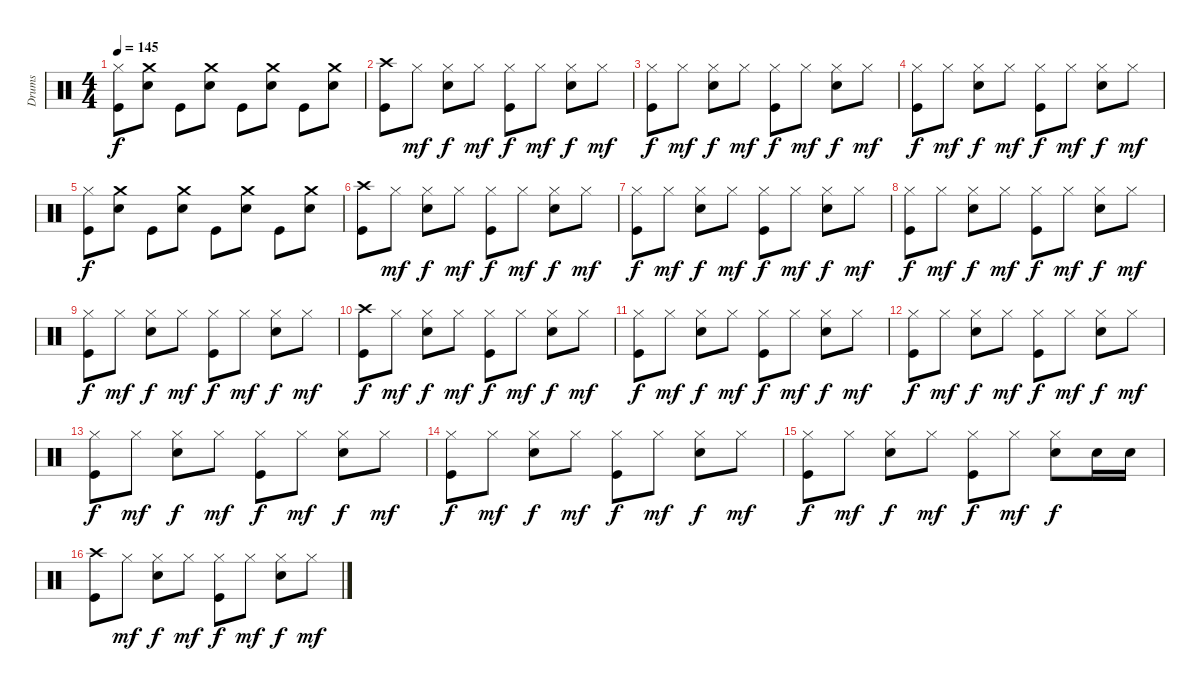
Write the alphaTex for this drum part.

\track ("Drums" "Drums") {instrument percussion}
\staff {score}
\articulation defaults
\ts (4 4)
\tempo 145
\clef neutral
\ks c
("Hi-Hat (closed)" "Kick (hit)").8{dy f} ("Snare (hit) 2" "Crash medium (hit)").8 "Kick (hit)".8 ("Snare (hit) 2" "Crash medium (hit)").8 "Kick (hit)".8 ("Snare (hit) 2" "Crash medium (hit)").8 "Kick (hit)".8 ("Snare (hit) 2" "Crash medium (hit)").8 |
("Crash high (hit)" "Kick (hit)").8 "Hi-Hat (closed)".8{dy mf} ("Hi-Hat (closed)" "Snare (hit) 2").8{dy f} "Hi-Hat (closed)".8{dy mf} ("Hi-Hat (closed)" "Kick (hit)").8{dy f} "Hi-Hat (closed)".8{dy mf} ("Hi-Hat (closed)" "Snare (hit) 2").8{dy f} "Hi-Hat (closed)".8{dy mf} |
("Hi-Hat (closed)" "Kick (hit)").8{dy f} "Hi-Hat (closed)".8{dy mf} ("Hi-Hat (closed)" "Snare (hit) 2").8{dy f} "Hi-Hat (closed)".8{dy mf} ("Hi-Hat (closed)" "Kick (hit)").8{dy f} "Hi-Hat (closed)".8{dy mf} ("Hi-Hat (closed)" "Snare (hit) 2").8{dy f} "Hi-Hat (closed)".8{dy mf} |
("Hi-Hat (closed)" "Kick (hit)").8{dy f} "Hi-Hat (closed)".8{dy mf} ("Hi-Hat (closed)" "Snare (hit) 2").8{dy f} "Hi-Hat (closed)".8{dy mf} ("Hi-Hat (closed)" "Kick (hit)").8{dy f} "Hi-Hat (closed)".8{dy mf} ("Hi-Hat (closed)" "Snare (hit) 2").8{dy f} "Hi-Hat (closed)".8{dy mf} |
("Hi-Hat (closed)" "Kick (hit)").8{dy f} ("Snare (hit) 2" "Crash medium (hit)").8 "Kick (hit)".8 ("Snare (hit) 2" "Crash medium (hit)").8 "Kick (hit)".8 ("Snare (hit) 2" "Crash medium (hit)").8 "Kick (hit)".8 ("Snare (hit) 2" "Crash medium (hit)").8 |
("Crash high (hit)" "Kick (hit)").8 "Hi-Hat (closed)".8{dy mf} ("Hi-Hat (closed)" "Snare (hit) 2").8{dy f} "Hi-Hat (closed)".8{dy mf} ("Hi-Hat (closed)" "Kick (hit)").8{dy f} "Hi-Hat (closed)".8{dy mf} ("Hi-Hat (closed)" "Snare (hit) 2").8{dy f} "Hi-Hat (closed)".8{dy mf} |
("Hi-Hat (closed)" "Kick (hit)").8{dy f} "Hi-Hat (closed)".8{dy mf} ("Hi-Hat (closed)" "Snare (hit) 2").8{dy f} "Hi-Hat (closed)".8{dy mf} ("Hi-Hat (closed)" "Kick (hit)").8{dy f} "Hi-Hat (closed)".8{dy mf} ("Hi-Hat (closed)" "Snare (hit) 2").8{dy f} "Hi-Hat (closed)".8{dy mf} |
("Hi-Hat (closed)" "Kick (hit)").8{dy f} "Hi-Hat (closed)".8{dy mf} ("Hi-Hat (closed)" "Snare (hit) 2").8{dy f} "Hi-Hat (closed)".8{dy mf} ("Hi-Hat (closed)" "Kick (hit)").8{dy f} "Hi-Hat (closed)".8{dy mf} ("Hi-Hat (closed)" "Snare (hit) 2").8{dy f} "Hi-Hat (closed)".8{dy mf} |
("Hi-Hat (closed)" "Kick (hit)").8{dy f} "Hi-Hat (closed)".8{dy mf} ("Hi-Hat (closed)" "Snare (hit) 2").8{dy f} "Hi-Hat (closed)".8{dy mf} ("Hi-Hat (closed)" "Kick (hit)").8{dy f} "Hi-Hat (closed)".8{dy mf} ("Hi-Hat (closed)" "Snare (hit) 2").8{dy f} "Hi-Hat (closed)".8{dy mf} |
("Crash high (hit)" "Kick (hit)").8{dy f} "Hi-Hat (closed)".8{dy mf} ("Hi-Hat (closed)" "Snare (hit) 2").8{dy f} "Hi-Hat (closed)".8{dy mf} ("Hi-Hat (closed)" "Kick (hit)").8{dy f} "Hi-Hat (closed)".8{dy mf} ("Hi-Hat (closed)" "Snare (hit) 2").8{dy f} "Hi-Hat (closed)".8{dy mf} |
("Hi-Hat (closed)" "Kick (hit)").8{dy f} "Hi-Hat (closed)".8{dy mf} ("Hi-Hat (closed)" "Snare (hit) 2").8{dy f} "Hi-Hat (closed)".8{dy mf} ("Hi-Hat (closed)" "Kick (hit)").8{dy f} "Hi-Hat (closed)".8{dy mf} ("Hi-Hat (closed)" "Snare (hit) 2").8{dy f} "Hi-Hat (closed)".8{dy mf} |
("Hi-Hat (closed)" "Kick (hit)").8{dy f} "Hi-Hat (closed)".8{dy mf} ("Hi-Hat (closed)" "Snare (hit) 2").8{dy f} "Hi-Hat (closed)".8{dy mf} ("Hi-Hat (closed)" "Kick (hit)").8{dy f} "Hi-Hat (closed)".8{dy mf} ("Hi-Hat (closed)" "Snare (hit) 2").8{dy f} "Hi-Hat (closed)".8{dy mf} |
("Hi-Hat (closed)" "Kick (hit)").8{dy f} "Hi-Hat (closed)".8{dy mf} ("Hi-Hat (closed)" "Snare (hit) 2").8{dy f} "Hi-Hat (closed)".8{dy mf} ("Hi-Hat (closed)" "Kick (hit)").8{dy f} "Hi-Hat (closed)".8{dy mf} ("Hi-Hat (closed)" "Snare (hit) 2").8{dy f} "Hi-Hat (closed)".8{dy mf} |
("Hi-Hat (closed)" "Kick (hit)").8{dy f} "Hi-Hat (closed)".8{dy mf} ("Hi-Hat (closed)" "Snare (hit) 2").8{dy f} "Hi-Hat (closed)".8{dy mf} ("Hi-Hat (closed)" "Kick (hit)").8{dy f} "Hi-Hat (closed)".8{dy mf} ("Hi-Hat (closed)" "Snare (hit) 2").8{dy f} "Hi-Hat (closed)".8{dy mf} |
("Hi-Hat (closed)" "Kick (hit)").8{dy f} "Hi-Hat (closed)".8{dy mf} ("Hi-Hat (closed)" "Snare (hit) 2").8{dy f} "Hi-Hat (closed)".8{dy mf} ("Hi-Hat (closed)" "Kick (hit)").8{dy f} "Hi-Hat (closed)".8{dy mf} ("Hi-Hat (closed)" "Snare (hit) 2").8{dy f} "Snare (hit) 2".16 "Snare (hit) 2".16 |
("Crash high (hit)" "Kick (hit)").8 "Hi-Hat (closed)".8{dy mf} ("Hi-Hat (closed)" "Snare (hit) 2").8{dy f} "Hi-Hat (closed)".8{dy mf} ("Hi-Hat (closed)" "Kick (hit)").8{dy f} "Hi-Hat (closed)".8{dy mf} ("Hi-Hat (closed)" "Snare (hit) 2").8{dy f} "Hi-Hat (closed)".8{dy mf}
